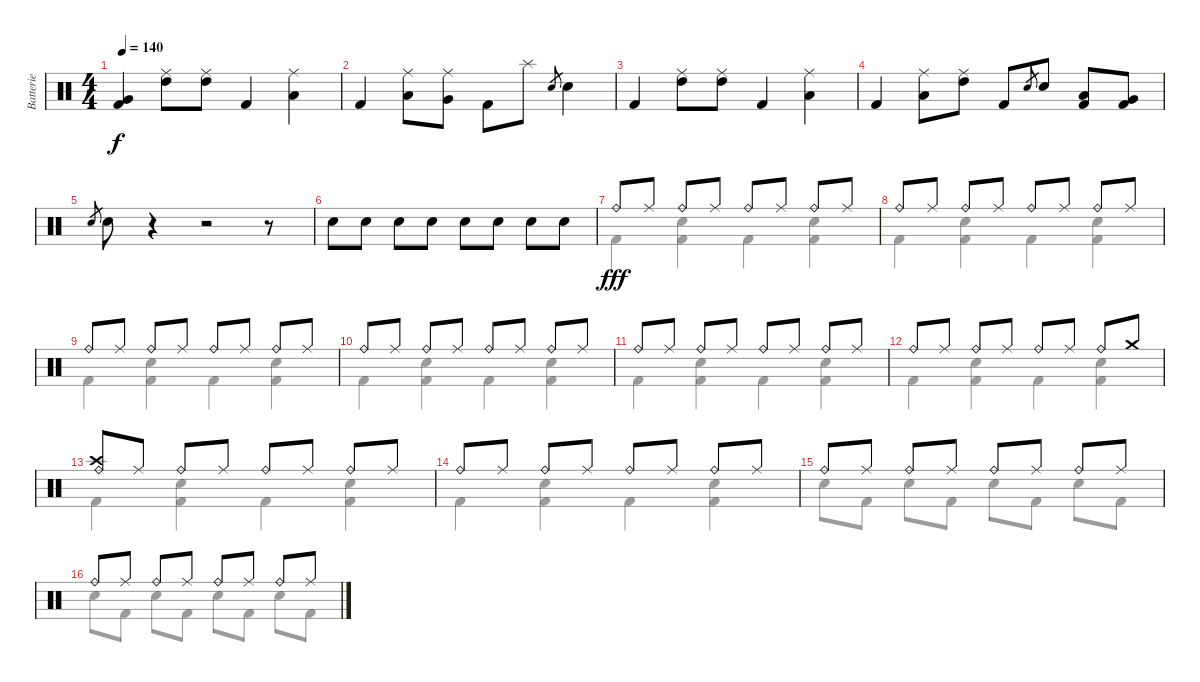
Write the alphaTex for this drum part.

\track ("Batterie" "Batterie") {instrument percussion}
\staff {score}
\articulation defaults
\voice
\ts (4 4)
\tempo 140
\clef neutral
\ks c
("Very Low Tom (hit)" "Kick (hit) 2").4{dy f} ("Ride (middle)" "High Tom (hit)").8 ("Ride (middle)" "High Tom (hit)").8 "Kick (hit) 2".4 ("Ride (middle)" "Low Tom (hit)").4 |
"Kick (hit) 2".4 ("Ride (middle)" "Low Tom (hit)").8 ("Ride (middle)" "Very Low Tom (hit)").8 "Kick (hit) 2".8 "Splash (hit)".8 "Electric Snare (hit)".8{gr} "Electric Snare (hit)".4 |
"Kick (hit) 2".4 ("Ride (middle)" "High Tom (hit)").8 ("Ride (middle)" "High Tom (hit)").8 "Kick (hit) 2".4 ("Ride (middle)" "Low Tom (hit)").4 |
"Kick (hit) 2".4 ("Ride (middle)" "Low Tom (hit)").8 ("Ride (middle)" "High Tom (hit)").8 "Kick (hit) 2".8 "Electric Snare (hit)".8{gr} "Electric Snare (hit)".8 ("Low Tom (hit)" "Kick (hit) 2").8 ("Very Low Tom (hit)" "Kick (hit) 2").8 |
"Electric Snare (hit)".8{gr} "Electric Snare (hit)".8 r.4 r.2 r.8 |
"Snare (hit) 2".8 "Snare (hit) 2".8 "Snare (hit) 2".8 "Snare (hit) 2".8 "Snare (hit) 2".8 "Snare (hit) 2".8 "Snare (hit) 2".8 "Snare (hit) 2".8 |
"Ride (bell)".8{dy fff} "Ride (middle)".8 "Ride (bell)".8 "Ride (middle)".8 "Ride (bell)".8 "Ride (middle)".8 "Ride (bell)".8 "Ride (middle)".8 |
"Ride (bell)".8 "Ride (middle)".8 "Ride (bell)".8 "Ride (middle)".8 "Ride (bell)".8 "Ride (middle)".8 "Ride (bell)".8 "Ride (middle)".8 |
"Ride (bell)".8 "Ride (middle)".8 "Ride (bell)".8 "Ride (middle)".8 "Ride (bell)".8 "Ride (middle)".8 "Ride (bell)".8 "Ride (middle)".8 |
"Ride (bell)".8 "Ride (middle)".8 "Ride (bell)".8 "Ride (middle)".8 "Ride (bell)".8 "Ride (middle)".8 "Ride (bell)".8 "Ride (middle)".8 |
"Ride (bell)".8 "Ride (middle)".8 "Ride (bell)".8 "Ride (middle)".8 "Ride (bell)".8 "Ride (middle)".8 "Ride (bell)".8 "Ride (middle)".8 |
"Ride (bell)".8 "Ride (middle)".8 "Ride (bell)".8 "Ride (middle)".8 "Ride (bell)".8 "Ride (middle)".8 "Ride (bell)".8 "Crash medium (hit)".8 |
("Crash high (hit)" "Ride (bell)").8 "Ride (middle)".8 "Ride (bell)".8 "Ride (middle)".8 "Ride (bell)".8 "Ride (middle)".8 "Ride (bell)".8 "Ride (middle)".8 |
"Ride (bell)".8 "Ride (middle)".8 "Ride (bell)".8 "Ride (middle)".8 "Ride (bell)".8 "Ride (middle)".8 "Ride (bell)".8 "Ride (middle)".8 |
"Ride (bell)".8 "Ride (middle)".8 "Ride (bell)".8 "Ride (middle)".8 "Ride (bell)".8 "Ride (middle)".8 "Ride (bell)".8 "Ride (middle)".8 |
"Ride (bell)".8 "Ride (middle)".8 "Ride (bell)".8 "Ride (middle)".8 "Ride (bell)".8 "Ride (middle)".8 "Ride (bell)".8 "Ride (middle)".8
\voice
\clef neutral
\ottava regular
\simile none
\ks c
|
|
|
|
|
|
"Kick (hit) 2".4 ("Electric Snare (hit)" "Kick (hit) 2").4 "Kick (hit) 2".4 ("Electric Snare (hit)" "Kick (hit) 2").4 |
"Kick (hit) 2".4 ("Electric Snare (hit)" "Kick (hit) 2").4 "Kick (hit) 2".4 ("Electric Snare (hit)" "Kick (hit) 2").4 |
"Kick (hit) 2".4 ("Electric Snare (hit)" "Kick (hit) 2").4 "Kick (hit) 2".4 ("Electric Snare (hit)" "Kick (hit) 2").4 |
"Kick (hit) 2".4 ("Electric Snare (hit)" "Kick (hit) 2").4 "Kick (hit) 2".4 ("Electric Snare (hit)" "Kick (hit) 2").4 |
"Kick (hit) 2".4 ("Electric Snare (hit)" "Kick (hit) 2").4 "Kick (hit) 2".4 ("Electric Snare (hit)" "Kick (hit) 2").4 |
"Kick (hit) 2".4 ("Electric Snare (hit)" "Kick (hit) 2").4 "Kick (hit) 2".4 ("Electric Snare (hit)" "Kick (hit) 2").4 |
"Kick (hit) 2".4 ("Electric Snare (hit)" "Kick (hit) 2").4 "Kick (hit) 2".4 ("Electric Snare (hit)" "Kick (hit) 2").4 |
"Kick (hit) 2".4 ("Electric Snare (hit)" "Kick (hit) 2").4 "Kick (hit) 2".4 ("Electric Snare (hit)" "Kick (hit) 2").4 |
"Electric Snare (hit)".8 "Kick (hit) 2".8 "Electric Snare (hit)".8 "Kick (hit) 2".8 "Electric Snare (hit)".8 "Kick (hit) 2".8 "Electric Snare (hit)".8 "Kick (hit) 2".8 |
"Electric Snare (hit)".8 "Kick (hit) 2".8 "Electric Snare (hit)".8 "Kick (hit) 2".8 "Electric Snare (hit)".8 "Kick (hit) 2".8 "Electric Snare (hit)".8 "Kick (hit) 2".8
